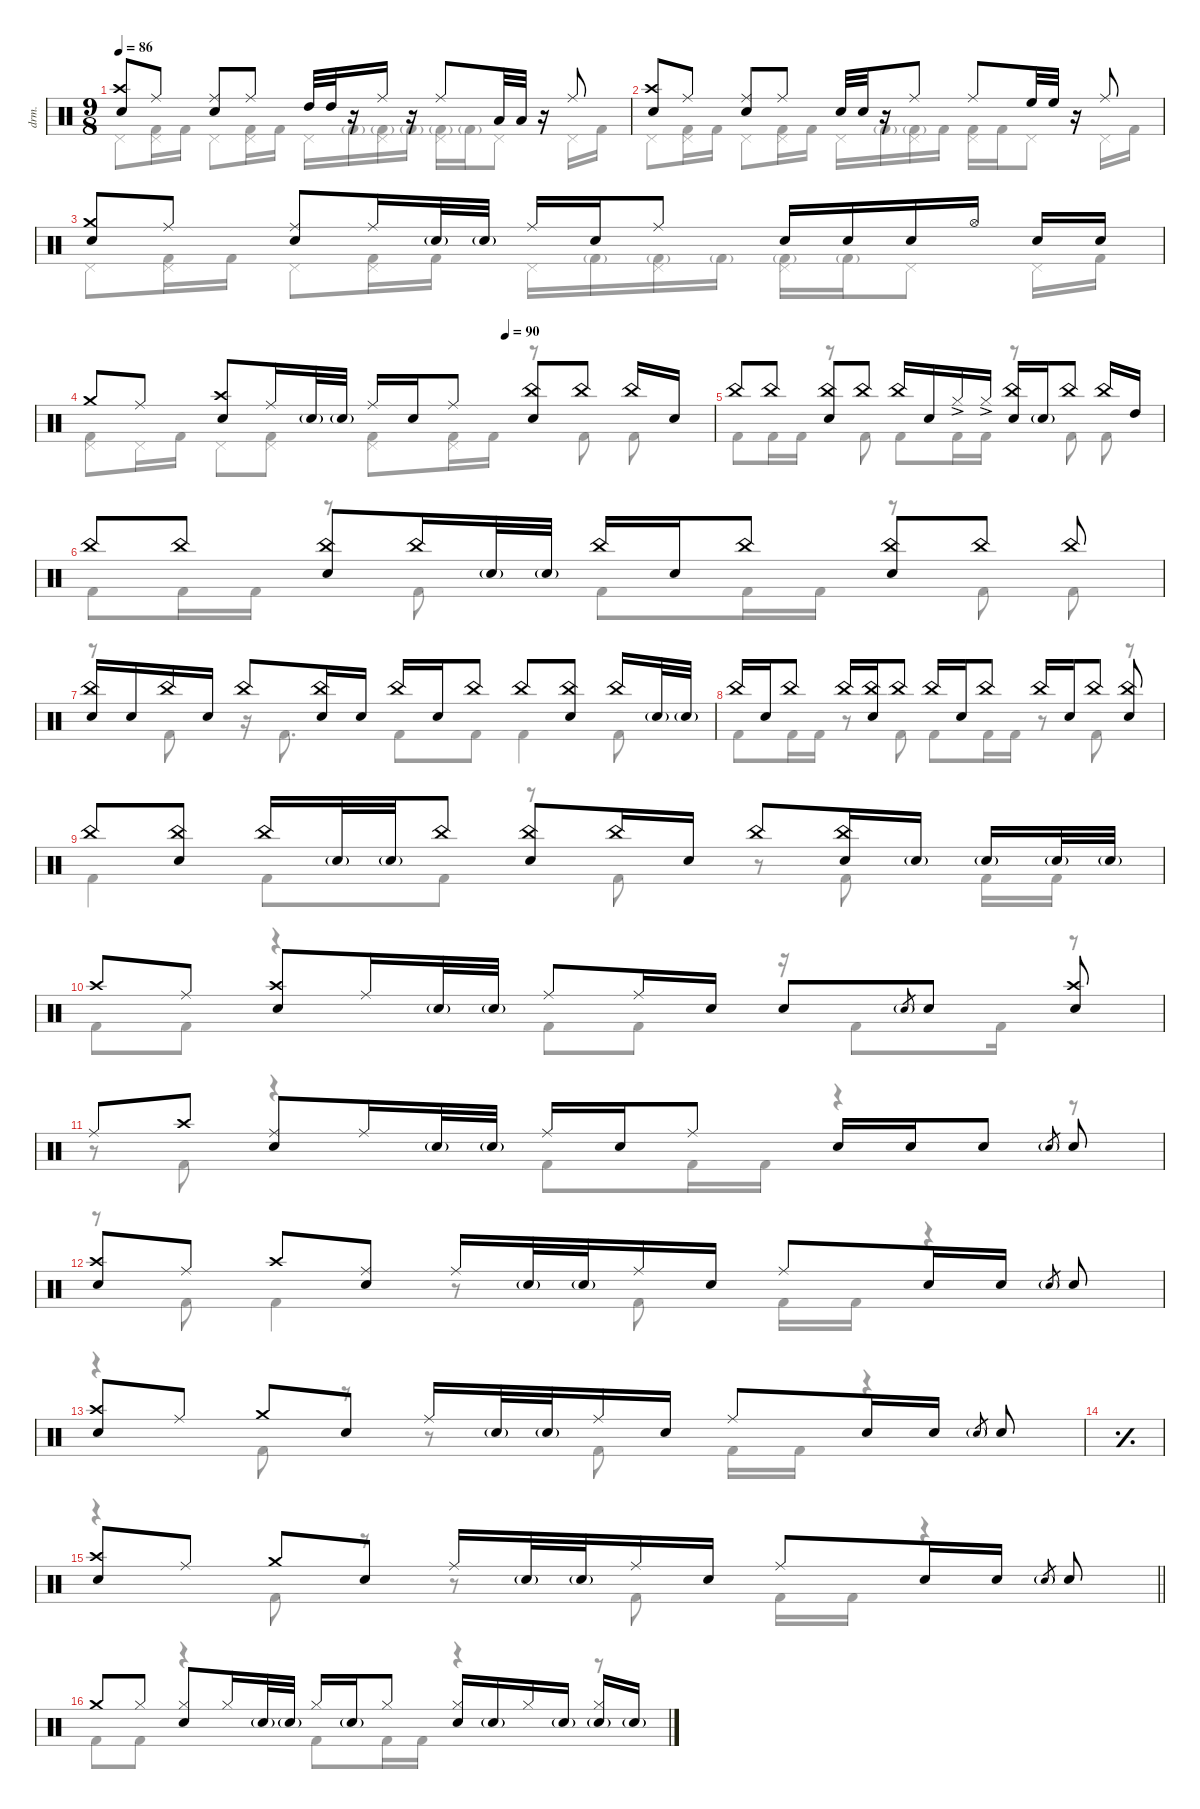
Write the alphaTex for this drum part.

\defaultSystemsLayout 4
\hideDynamics
\bracketExtendMode nobrackets
\track ("Drums" "drm.") {instrument percussion}
\staff {score}
\articulation defaults
\voice
\ts (9 8)
\tempo 86
\clef neutral
\ks c
("Crash high (hit)" "Snare (hit) 2").8{dy mf} "Ride (middle)".8{beam split} ("Ride (middle)" "Snare (hit) 2").8{beam merge} "Ride (middle)".8{beam split} "High Tom (hit)".32 "High Tom (hit)".32 r.16 "Ride (middle)".16 r.16 "Ride (middle)".8 "Low Tom (hit)".32 "Low Tom (hit)".32{beam split} r.16{beam split} "Ride (middle)".8 |
\scale
0.511206 ("Crash high (hit)" "Snare (hit) 2").8 "Ride (middle)".8{beam split} ("Ride (middle)" "Snare (hit) 2").8{beam merge} "Ride (middle)".8{beam split} "Snare (hit) 2".32 "Snare (hit) 2".32 r.16 "Ride (middle)".8 "Ride (middle)".8 "High Floor Tom (hit)".32 "High Floor Tom (hit)".32{beam split} r.16{beam split} "Ride (middle)".8 |
\scale
0.488794 ("Crash medium (hit)" "Snare (hit) 2").8 "Ride (middle)".8{beam split} ("Ride (middle)" "Snare (hit) 2").8{beam merge} "Ride (middle)".16 "Snare (hit) 2"{g}.32 "Snare (hit) 2"{g}.32{beam split} "Ride (middle)".16 "Snare (hit) 2".16 "Ride (middle)".8 "Snare (hit) 2".16 "Snare (hit) 2".16 "Snare (hit) 2".16 "Hi-Hat (open)".16{beam split} "Snare (hit) 2".16 "Snare (hit) 2".16 |
\tempo (90 0.666667)
\scale
0.511204 "Crash medium (hit)".8 "Ride (middle)".8{beam split} ("Crash high (hit)" "Snare (hit) 2").8{beam merge} "Ride (middle)".16 "Snare (hit) 2"{g}.32 "Snare (hit) 2"{g}.32{beam split} "Ride (middle)".16 "Snare (hit) 2".16 "Ride (middle)".8 ("China (choke)" "Snare (hit) 2").8 "China (choke)".8{beam split} "China (choke)".16 "Snare (hit) 2".16 |
\scale
0.488796 "China (choke)".8 "China (choke)".8{beam split} ("China (choke)" "Snare (hit) 2").8{beam merge} "China (choke)".8{beam split} "China (choke)".16 "Snare (hit) 2".16 "Hi-Hat (closed)"{ac}.16 "Hi-Hat (closed)"{ac}.16 ("China (choke)" "Snare (hit) 2").16 "Snare (hit) 2"{g}.16 "China (choke)".8{beam split} "China (choke)".16 "High Tom (hit)".16 |
\scale
0.511207 "China (choke)".8 "China (choke)".8{beam split} ("China (choke)" "Snare (hit) 2").8{beam merge} "China (choke)".16 "Snare (hit) 2"{g}.32 "Snare (hit) 2"{g}.32{beam split} "China (choke)".16 "Snare (hit) 2".16 "China (choke)".8 ("China (choke)" "Snare (hit) 2").8 "China (choke)".8{beam split} "China (choke)".8 |
\scale
0.488793 ("China (choke)" "Snare (hit) 2").16 "Snare (hit) 2".16 "China (choke)".16 "Snare (hit) 2".16{beam split} "China (choke)".8{beam merge} ("China (choke)" "Snare (hit) 2").16 "Snare (hit) 2".16{beam split} "China (choke)".16 "Snare (hit) 2".16 "China (choke)".8 "China (choke)".8 ("China (choke)" "Snare (hit) 2").8{beam split} "China (choke)".16 "Snare (hit) 2"{g}.32 "Snare (hit) 2"{g}.32 |
\scale
0.511206 "China (choke)".16 "Snare (hit) 2".16 "China (choke)".8{beam split} "China (choke)".16 ("Snare (hit) 2" "China (choke)").16{beam merge} "China (choke)".8{beam split} "China (choke)".16 "Snare (hit) 2".16 "China (choke)".8 "China (choke)".16 "Snare (hit) 2".16 "China (choke)".8{beam split} ("China (choke)" "Snare (hit) 2").8 |
\scale
0.488794 "China (choke)".8 ("China (choke)" "Snare (hit) 2").8{beam split} "China (choke)".16 "Snare (hit) 2"{g}.32 "Snare (hit) 2"{g}.32{beam merge} "China (choke)".8{beam split} ("China (choke)" "Snare (hit) 2").8 "China (choke)".16 "Snare (hit) 2".16{beam split} "China (choke)".8{beam merge} ("China (choke)" "Snare (hit) 2").16 "Snare (hit) 2"{g}.16{beam split} "Snare (hit) 2"{g}.16 "Snare (hit) 2"{g}.32 "Snare (hit) 2"{g}.32 |
\scale
0.511207 "Crash high (hit)".8 "Ride (middle)".8{beam split} ("Crash high (hit)" "Snare (hit) 2").8{beam merge} "Ride (middle)".16 "Snare (hit) 2"{g}.32 "Snare (hit) 2"{g}.32{beam split} "Ride (middle)".8 "Ride (middle)".16 "Snare (hit) 2".16 "Snare (hit) 2".8 "Snare (hit) 2"{g}.8{gr} "Snare (hit) 2".8{beam split} ("Snare (hit) 2" "Crash high (hit)").8 |
\scale
0.488793 "Ride (middle)".8 "Crash high (hit)".8{beam split} ("Ride (middle)" "Snare (hit) 2").8{beam merge} "Ride (middle)".16 "Snare (hit) 2"{g}.32 "Snare (hit) 2"{g}.32{beam split} "Ride (middle)".16 "Snare (hit) 2".16 "Ride (middle)".8 "Snare (hit) 2".16 "Snare (hit) 2".16 "Snare (hit) 2".8{beam split} "Snare (hit) 2"{g}.8{gr beam split} "Snare (hit) 2".8 |
("Crash high (hit)" "Snare (hit) 2").8 "Ride (middle)".8{beam split} "Crash high (hit)".8{beam merge} ("Ride (middle)" "Snare (hit) 2").8{beam split} "Ride (middle)".16 "Snare (hit) 2"{g}.32 "Snare (hit) 2"{g}.32 "Ride (middle)".16 "Snare (hit) 2".16 "Ride (middle)".8 "Snare (hit) 2".16 "Snare (hit) 2".16{beam split} "Snare (hit) 2"{g}.8{gr beam split} "Snare (hit) 2".8 |
("Crash high (hit)" "Snare (hit) 2").8 "Ride (middle)".8{beam split} "Crash medium (hit)".8{beam merge} "Snare (hit) 2".8{beam split} "Ride (middle)".16 "Snare (hit) 2"{g}.32 "Snare (hit) 2"{g}.32 "Ride (middle)".16 "Snare (hit) 2".16 "Ride (middle)".8 "Snare (hit) 2".16 "Snare (hit) 2".16{beam split} "Snare (hit) 2"{g}.8{gr beam split} "Snare (hit) 2".8 |
\simile simple
\scale
0.509213 |
\simile none
\scale
0.490787
\barLineRight lightlight
("Crash high (hit)" "Snare (hit) 2").8 "Ride (middle)".8{beam split} "Crash medium (hit)".8{beam merge} "Snare (hit) 2".8{beam split} "Ride (middle)".16 "Snare (hit) 2"{g}.32 "Snare (hit) 2"{g}.32 "Ride (middle)".16 "Snare (hit) 2".16 "Ride (middle)".8 "Snare (hit) 2".16 "Snare (hit) 2".16{beam split} "Snare (hit) 2"{g}.8{gr beam split} "Snare (hit) 2".8 |
"Crash medium (hit)".8 "Hi-Hat (closed)".8{beam split} ("Hi-Hat (closed)" "Snare (hit) 2").8{beam merge} "Hi-Hat (closed)".16 "Snare (hit) 2"{g}.32 "Snare (hit) 2"{g}.32{beam split} "Hi-Hat (closed)".16 "Snare (hit) 2"{g}.16 "Hi-Hat (closed)".8 ("Hi-Hat (closed)" "Snare (hit) 2").16 "Snare (hit) 2"{g}.16 "Hi-Hat (closed)".16 "Snare (hit) 2"{g}.16{beam split} ("Snare (hit) 2"{g} "Hi-Hat (closed)").16 "Snare (hit) 2"{g}.16
\voice
\clef neutral
\ottava regular
\simile none
\ks c "Pedal Hi-Hat (hit)".8{dy mf}
("Pedal Hi-Hat (hit)" "Kick (hit) 2").16 "Kick (hit) 2".16{beam split} "Pedal Hi-Hat (hit)".8{beam merge} ("Pedal Hi-Hat (hit)" "Kick (hit) 2").16 "Kick (hit) 2".16{beam split} "Pedal Hi-Hat (hit)".16 "Kick (hit) 2"{g}.16 ("Kick (hit) 2"{g} "Pedal Hi-Hat (hit)").16 "Kick (hit) 2"{g}.16 ("Kick (hit) 2"{g} "Pedal Hi-Hat (hit)").16 "Kick (hit) 2"{g}.16 "Pedal Hi-Hat (hit)".8{beam split} "Pedal Hi-Hat (hit)".16 "Kick (hit) 2".16 |
\scale
0.511206 "Pedal Hi-Hat (hit)".8 ("Pedal Hi-Hat (hit)" "Kick (hit) 2").16 "Kick (hit) 2".16{beam split} "Pedal Hi-Hat (hit)".8{beam merge} ("Pedal Hi-Hat (hit)" "Kick (hit) 2").16 "Kick (hit) 2".16{beam split} "Pedal Hi-Hat (hit)".16 "Kick (hit) 2"{g}.16 ("Kick (hit) 2"{g} "Pedal Hi-Hat (hit)").16 "Kick (hit) 2".16 ("Kick (hit) 2" "Pedal Hi-Hat (hit)").16 "Kick (hit) 2".16 "Pedal Hi-Hat (hit)".8{beam split} "Pedal Hi-Hat (hit)".16 "Kick (hit) 2".16 |
\scale
0.488794 "Pedal Hi-Hat (hit)".8 ("Pedal Hi-Hat (hit)" "Kick (hit) 2").16 "Kick (hit) 2".16{beam split} "Pedal Hi-Hat (hit)".8{beam merge} ("Pedal Hi-Hat (hit)" "Kick (hit) 2").16 "Kick (hit) 2".16{beam split} "Pedal Hi-Hat (hit)".16 "Kick (hit) 2"{g}.16 ("Kick (hit) 2"{g} "Pedal Hi-Hat (hit)").16 "Kick (hit) 2"{g}.16 ("Kick (hit) 2"{g} "Pedal Hi-Hat (hit)").16 "Kick (hit) 2"{g}.16 "Pedal Hi-Hat (hit)".8{beam split} "Pedal Hi-Hat (hit)".16 "Kick (hit) 2".16 |
\scale
0.511204 ("Kick (hit) 2" "Pedal Hi-Hat (hit)").8 "Pedal Hi-Hat (hit)".16 "Kick (hit) 2".16{beam split} "Pedal Hi-Hat (hit)".8{beam merge} ("Pedal Hi-Hat (hit)" "Kick (hit) 2").8{beam split} ("Kick (hit) 2" "Pedal Hi-Hat (hit)").8 ("Pedal Hi-Hat (hit)" "Kick (hit) 2").16 "Kick (hit) 2".16 r.8 "Kick (hit) 2".8{beam split} "Kick (hit) 2".8 |
\scale
0.488796 "Kick (hit) 2".8 "Kick (hit) 2".16 "Kick (hit) 2".16 r.8 "Kick (hit) 2".8{beam split} "Kick (hit) 2".8 "Kick (hit) 2".16{beam merge} "Kick (hit) 2".16 r.8 "Kick (hit) 2".8{beam split} "Kick (hit) 2".8 |
\scale
0.511207 "Kick (hit) 2".8 "Kick (hit) 2".16 "Kick (hit) 2".16 r.8 "Kick (hit) 2".8{beam split} "Kick (hit) 2".8{beam merge} "Kick (hit) 2".16 "Kick (hit) 2".16 r.8 "Kick (hit) 2".8{beam split} "Kick (hit) 2".8 |
\scale
0.488793 r.8 "Kick (hit) 2".8{beam split} r.16{beam split} "Kick (hit) 2".8{d} "Kick (hit) 2".8 "Kick (hit) 2".8 "Kick (hit) 2".4 "Kick (hit) 2".8 |
\scale
0.511206 "Kick (hit) 2".8 "Kick (hit) 2".16 "Kick (hit) 2".16 r.8 "Kick (hit) 2".8{beam split} "Kick (hit) 2".8 "Kick (hit) 2".16 "Kick (hit) 2".16 r.8 "Kick (hit) 2".8 r.8 |
\scale
0.488794 "Kick (hit) 2".4 "Kick (hit) 2".8{beam merge} "Kick (hit) 2".8{beam split} r.8{beam split} "Kick (hit) 2".8 r.8 "Kick (hit) 2".8{beam split} "Kick (hit) 2".16 "Kick (hit) 2".16 |
\scale
0.511207 "Kick (hit) 2".8 "Kick (hit) 2".8 r.4 "Kick (hit) 2".8 "Kick (hit) 2".8 r.16 "Kick (hit) 2".8 "Kick (hit) 2".16 r.8 |
\scale
0.488793 r.8 "Kick (hit) 2".8 r.4 "Kick (hit) 2".8 "Kick (hit) 2".16 "Kick (hit) 2".16 r.4 r.8 |
r.8 "Kick (hit) 2".8 "Kick (hit) 2".4 r.8 "Kick (hit) 2".8 "Kick (hit) 2".16 "Kick (hit) 2".16 r.4 |
r.4 "Kick (hit) 2".8 r.8 r.8 "Kick (hit) 2".8 "Kick (hit) 2".16 "Kick (hit) 2".16 r.4 |
\simile simple
\scale
0.509213 |
\simile none
\scale
0.490787
\barLineRight lightlight
r.4 "Kick (hit) 2".8 r.8 r.8 "Kick (hit) 2".8 "Kick (hit) 2".16 "Kick (hit) 2".16 r.4 |
"Kick (hit) 2".8 "Kick (hit) 2".8 r.4 "Kick (hit) 2".8 "Kick (hit) 2".16 "Kick (hit) 2".16 r.4 r.8
